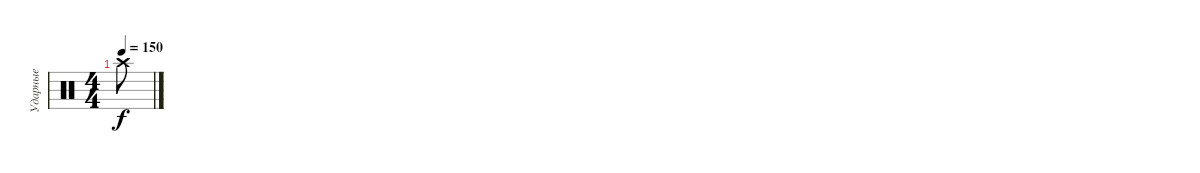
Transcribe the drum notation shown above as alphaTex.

\track ("Ударные" "Ударные") {instrument percussion}
\staff {score}
\articulation defaults
\ts (4 4)
\tempo 150
\clef neutral
\ks c "Crash high (hit)".8{dy f}
